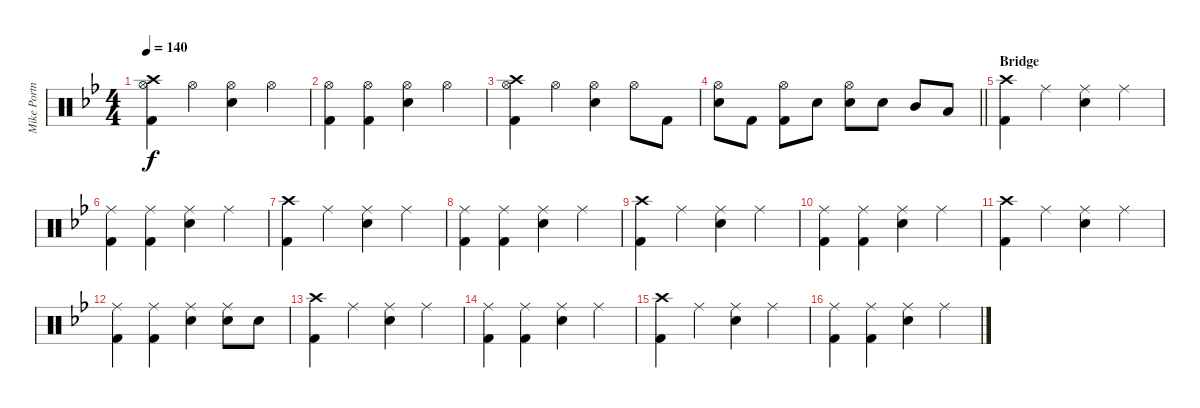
\track ("Mike Portnoy" "Mike Portn") {instrument percussion}
\staff {score}
\articulation defaults
\ts (4 4)
\tempo 140
\clef neutral
\ks bb
("Crash high (hit)" "Hi-Hat (open)" "Kick (hit) 2").4{dy f} "Hi-Hat (open)".4 ("Hi-Hat (open)" "Snare (hit) 2").4 "Hi-Hat (open)".4 |
("Hi-Hat (open)" "Kick (hit) 2").4 ("Hi-Hat (open)" "Kick (hit) 2").4 ("Hi-Hat (open)" "Electric Snare (hit)").4 "Hi-Hat (open)".4 |
("Crash high (hit)" "Hi-Hat (open)" "Kick (hit) 2").4 "Hi-Hat (open)".4 ("Hi-Hat (open)" "Electric Snare (hit)").4 "Hi-Hat (open)".8 "Kick (hit) 2".8 |
\barLineRight lightlight
("Hi-Hat (open)" "Electric Snare (hit)").8 "Kick (hit) 2".8 ("Hi-Hat (open)" "Kick (hit) 2").8 "Electric Snare (hit)".8 ("Hi-Hat (open)" "Electric Snare (hit)").8 "Electric Snare (hit)".8 "Mid Tom (hit)".8 "Low Tom (hit)".8 |
\section ("" "Bridge")
("Crash high (hit)" "Kick (hit) 2").4 "Ride (middle)".4 ("Ride (middle)" "Electric Snare (hit)").4 "Ride (middle)".4 |
("Ride (middle)" "Kick (hit) 2").4 ("Ride (middle)" "Kick (hit) 2").4 ("Ride (middle)" "Electric Snare (hit)").4 "Ride (middle)".4 |
("Crash high (hit)" "Kick (hit) 2").4 "Ride (middle)".4 ("Ride (middle)" "Electric Snare (hit)").4 "Ride (middle)".4 |
("Ride (middle)" "Kick (hit) 2").4 ("Ride (middle)" "Kick (hit) 2").4 ("Ride (middle)" "Electric Snare (hit)").4 "Ride (middle)".4 |
("Crash high (hit)" "Kick (hit) 2").4 "Ride (middle)".4 ("Ride (middle)" "Electric Snare (hit)").4 "Ride (middle)".4 |
("Ride (middle)" "Kick (hit) 2").4 ("Ride (middle)" "Kick (hit) 2").4 ("Ride (middle)" "Electric Snare (hit)").4 "Ride (middle)".4 |
("Crash high (hit)" "Kick (hit) 2").4 "Ride (middle)".4 ("Ride (middle)" "Electric Snare (hit)").4 "Ride (middle)".4 |
("Ride (middle)" "Kick (hit) 2").4 ("Ride (middle)" "Kick (hit) 2").4 ("Ride (middle)" "Electric Snare (hit)").4 ("Ride (middle)" "Electric Snare (hit)").8 "Electric Snare (hit)".8 |
("Crash high (hit)" "Kick (hit) 2").4 "Ride (middle)".4 ("Ride (middle)" "Electric Snare (hit)").4 "Ride (middle)".4 |
("Ride (middle)" "Kick (hit) 2").4 ("Ride (middle)" "Kick (hit) 2").4 ("Ride (middle)" "Electric Snare (hit)").4 "Ride (middle)".4 |
("Crash high (hit)" "Kick (hit) 2").4 "Ride (middle)".4 ("Ride (middle)" "Electric Snare (hit)").4 "Ride (middle)".4 |
("Ride (middle)" "Kick (hit) 2").4 ("Ride (middle)" "Kick (hit) 2").4 ("Ride (middle)" "Electric Snare (hit)").4 "Ride (middle)".4
